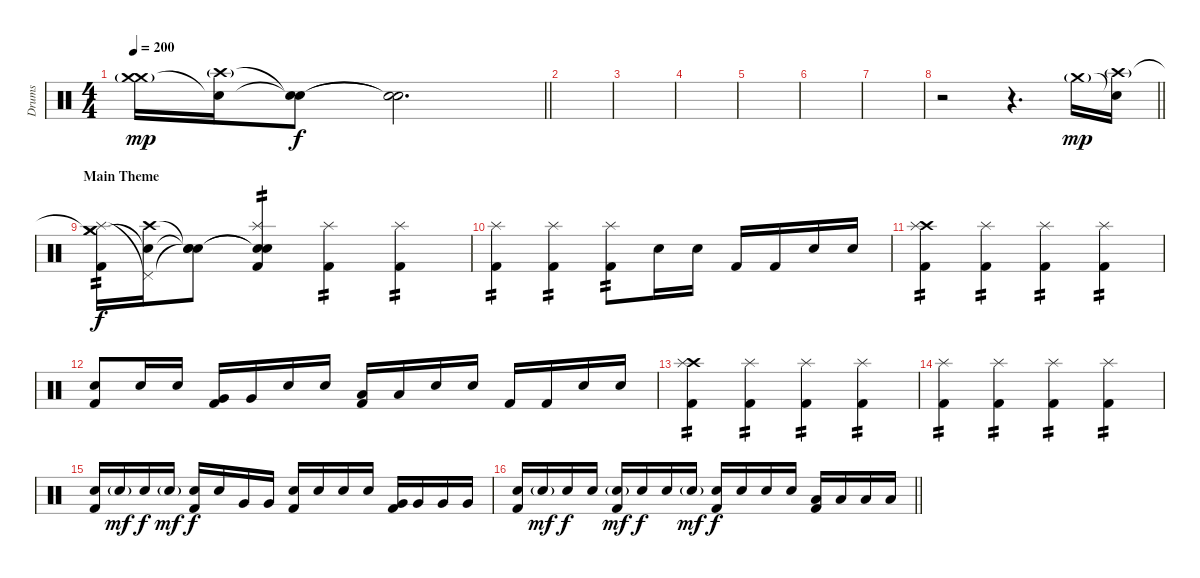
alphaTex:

\track ("Drums" "Drums") {instrument percussion}
\staff {score}
\articulation defaults
\ts (4 4)
\tempo 200
\clef neutral
\barLineRight lightlight
\ks c
("Crash medium (hit)"{g} "Crash medium (hit)"{t}).16{dy mp} ("Snare (hit)"{t} "Crash high (hit)"{g}).16 ("Snare (hit)"{t} "Snare (hit)"{t}).8{dy f} ("Snare (hit)"{t} "Snare (hit)"{t}).2{d} |
|
|
|
|
|
|
\barLineRight lightlight
r.2 r.4{d} "Crash medium (hit)"{g}.16{dy mp} ("Snare (hit)"{t} "Crash high (hit)"{g}).16 |
\section ("" "Main Theme")
("Crash medium (hit)" "Crash medium (hit)"{t} "Splash (hit)" "Kick (hit) 2").16{tp 2 dy f} ("Snare (hit)"{t} "Crash high (hit)" "Pedal Hi-Hat (hit)"{t}).16 ("Snare (hit)"{t} "Snare (hit)"{t} "Snare (hit)"{t}).8 ("Snare (hit)"{t} "Snare (hit)"{t} "Splash (hit)" "Kick (hit) 2").4{tp 2} ("Splash (hit)" "Kick (hit) 2").4{tp 2} ("Splash (hit)" "Kick (hit) 2").4{tp 2} |
("Splash (hit)" "Kick (hit) 2").4{tp 2} ("Splash (hit)" "Kick (hit) 2").4{tp 2} ("Splash (hit)" "Kick (hit) 2").8{tp 2} "Electric Snare (hit)".16 "Electric Snare (hit)".16 "Kick (hit) 2".16 "Kick (hit) 2".16 "Electric Snare (hit)".16 "Electric Snare (hit)".16 |
("Crash high (hit)" "Splash (hit)" "Kick (hit) 2").4{tp 2} ("Splash (hit)" "Kick (hit) 2").4{tp 2} ("Splash (hit)" "Kick (hit) 2").4{tp 2} ("Splash (hit)" "Kick (hit) 2").4{tp 2} |
("Electric Snare (hit)" "Kick (hit) 2").8 "Electric Snare (hit)".16 "Electric Snare (hit)".16 ("Very Low Tom (hit)" "Kick (hit) 2").16 "Very Low Tom (hit)".16 "Electric Snare (hit)".16 "Electric Snare (hit)".16 ("Low Floor Tom (hit)" "Kick (hit) 2").16 "Low Floor Tom (hit)".16 "Electric Snare (hit)".16 "Electric Snare (hit)".16 "Kick (hit) 2".16 "Kick (hit) 2".16 "Electric Snare (hit)".16 "Electric Snare (hit)".16 |
("Crash high (hit)" "Splash (hit)" "Kick (hit) 2").4{tp 2} ("Splash (hit)" "Kick (hit) 2").4{tp 2} ("Splash (hit)" "Kick (hit) 2").4{tp 2} ("Splash (hit)" "Kick (hit) 2").4{tp 2} |
("Splash (hit)" "Kick (hit) 2").4{tp 2} ("Splash (hit)" "Kick (hit) 2").4{tp 2} ("Splash (hit)" "Kick (hit) 2").4{tp 2} ("Splash (hit)" "Kick (hit) 2").4{tp 2} |
("Electric Snare (hit)" "Kick (hit) 2").16 "Electric Snare (hit)"{g}.16{dy mf} "Electric Snare (hit)".16{dy f} "Electric Snare (hit)"{g}.16{dy mf} ("Electric Snare (hit)" "Kick (hit) 2").16{dy f} "Electric Snare (hit)".16 "Very Low Tom (hit)".16 "Very Low Tom (hit)".16 ("Electric Snare (hit)" "Kick (hit) 2").16 "Electric Snare (hit)".16 "Electric Snare (hit)".16 "Electric Snare (hit)".16 ("Very Low Tom (hit)" "Kick (hit) 2").16 "Very Low Tom (hit)".16 "Very Low Tom (hit)".16 "Very Low Tom (hit)".16 |
\barLineRight lightlight
("Electric Snare (hit)" "Kick (hit) 2").16 "Electric Snare (hit)"{g}.16{dy mf} "Electric Snare (hit)".16{dy f} "Electric Snare (hit)".16 ("Electric Snare (hit)"{g} "Kick (hit) 2").16{dy mf} "Electric Snare (hit)".16{dy f} "Electric Snare (hit)".16 "Electric Snare (hit)"{g}.16{dy mf} ("Electric Snare (hit)" "Kick (hit) 2").16{dy f} "Electric Snare (hit)".16 "Electric Snare (hit)".16 "Electric Snare (hit)".16 ("Low Floor Tom (hit)" "Kick (hit) 2").16 "Low Floor Tom (hit)".16 "Low Floor Tom (hit)".16 "Low Floor Tom (hit)".16
